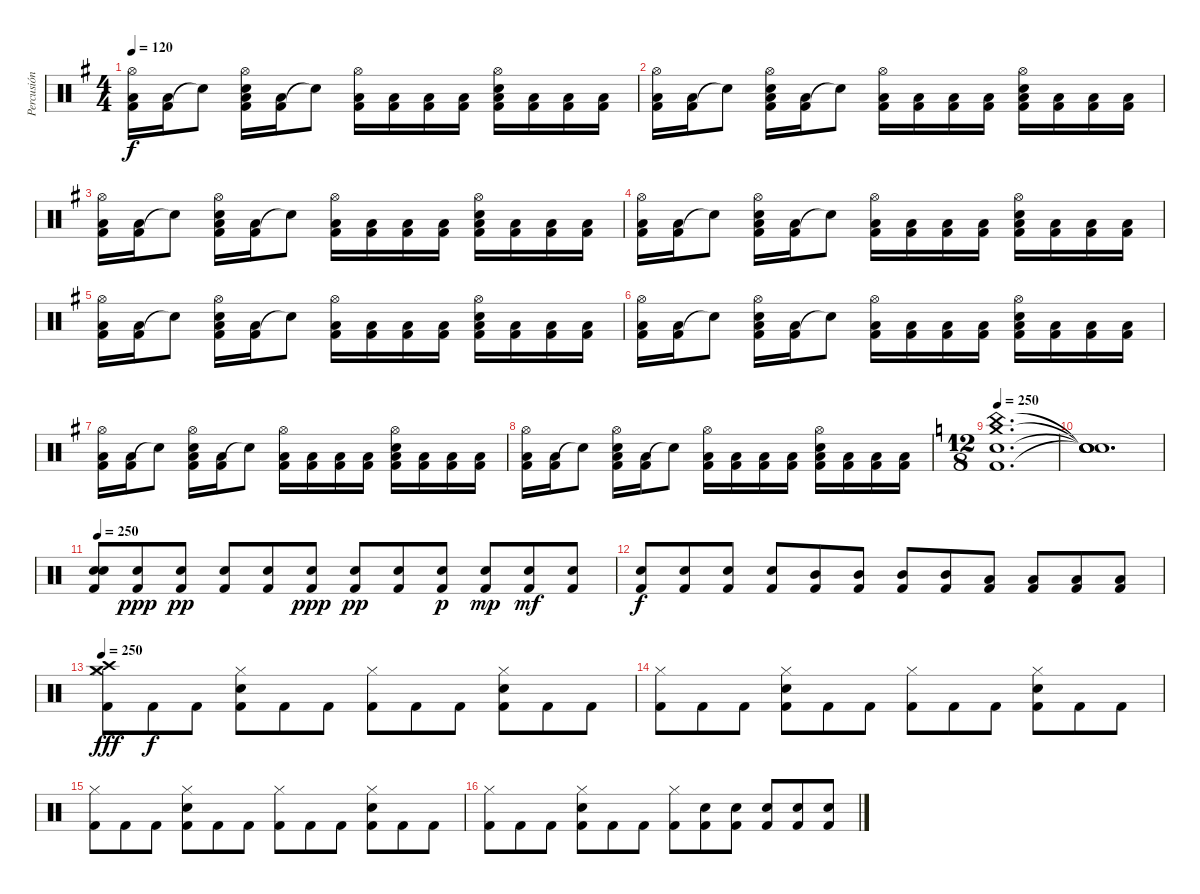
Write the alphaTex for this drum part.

\track ("Percusión" "Percusión") {instrument percussion}
\staff {score}
\articulation defaults
\ts (4 4)
\tempo 120
\clef neutral
\ks g
("Hi-Hat (open)" "Kick (hit) 2" "Low Tom (hit)").16{dy f} ("Kick (hit) 2" "Low Tom (hit)").16 "Snare (hit)"{t}.8 ("Hi-Hat (open)" "Kick (hit) 2" "Low Tom (hit)" "Snare (hit) 2").16 ("Kick (hit) 2" "Low Tom (hit)").16 "Snare (hit)"{t}.8 ("Hi-Hat (open)" "Kick (hit) 2" "Low Tom (hit)").16 ("Kick (hit) 2" "Low Tom (hit)").16 ("Kick (hit) 2" "Low Tom (hit)").16 ("Kick (hit) 2" "Low Tom (hit)").16 ("Hi-Hat (open)" "Kick (hit) 2" "Low Tom (hit)" "Snare (hit) 2").16 ("Kick (hit) 2" "Low Tom (hit)").16 ("Kick (hit) 2" "Low Tom (hit)").16 ("Kick (hit) 2" "Low Tom (hit)").16 |
("Hi-Hat (open)" "Kick (hit) 2" "Low Tom (hit)").16 ("Kick (hit) 2" "Low Tom (hit)").16 "Snare (hit)"{t}.8 ("Hi-Hat (open)" "Kick (hit) 2" "Low Tom (hit)" "Snare (hit) 2").16 ("Kick (hit) 2" "Low Tom (hit)").16 "Snare (hit)"{t}.8 ("Hi-Hat (open)" "Kick (hit) 2" "Low Tom (hit)").16 ("Kick (hit) 2" "Low Tom (hit)").16 ("Kick (hit) 2" "Low Tom (hit)").16 ("Kick (hit) 2" "Low Tom (hit)").16 ("Hi-Hat (open)" "Kick (hit) 2" "Low Tom (hit)" "Snare (hit) 2").16 ("Kick (hit) 2" "Low Tom (hit)").16 ("Kick (hit) 2" "Low Tom (hit)").16 ("Kick (hit) 2" "Low Tom (hit)").16 |
("Hi-Hat (open)" "Kick (hit) 2" "Low Tom (hit)").16 ("Kick (hit) 2" "Low Tom (hit)").16 "Snare (hit)"{t}.8 ("Hi-Hat (open)" "Kick (hit) 2" "Low Tom (hit)" "Snare (hit) 2").16 ("Kick (hit) 2" "Low Tom (hit)").16 "Snare (hit)"{t}.8 ("Hi-Hat (open)" "Kick (hit) 2" "Low Tom (hit)").16 ("Kick (hit) 2" "Low Tom (hit)").16 ("Kick (hit) 2" "Low Tom (hit)").16 ("Kick (hit) 2" "Low Tom (hit)").16 ("Hi-Hat (open)" "Kick (hit) 2" "Low Tom (hit)" "Snare (hit) 2").16 ("Kick (hit) 2" "Low Tom (hit)").16 ("Kick (hit) 2" "Low Tom (hit)").16 ("Kick (hit) 2" "Low Tom (hit)").16 |
("Hi-Hat (open)" "Kick (hit) 2" "Low Tom (hit)").16 ("Kick (hit) 2" "Low Tom (hit)").16 "Snare (hit)"{t}.8 ("Hi-Hat (open)" "Kick (hit) 2" "Low Tom (hit)" "Snare (hit) 2").16 ("Kick (hit) 2" "Low Tom (hit)").16 "Snare (hit)"{t}.8 ("Hi-Hat (open)" "Kick (hit) 2" "Low Tom (hit)").16 ("Kick (hit) 2" "Low Tom (hit)").16 ("Kick (hit) 2" "Low Tom (hit)").16 ("Kick (hit) 2" "Low Tom (hit)").16 ("Hi-Hat (open)" "Kick (hit) 2" "Low Tom (hit)" "Snare (hit) 2").16 ("Kick (hit) 2" "Low Tom (hit)").16 ("Kick (hit) 2" "Low Tom (hit)").16 ("Kick (hit) 2" "Low Tom (hit)").16 |
("Hi-Hat (open)" "Kick (hit) 2" "Low Tom (hit)").16 ("Kick (hit) 2" "Low Tom (hit)").16 "Snare (hit)"{t}.8 ("Hi-Hat (open)" "Kick (hit) 2" "Low Tom (hit)" "Snare (hit) 2").16 ("Kick (hit) 2" "Low Tom (hit)").16 "Snare (hit)"{t}.8 ("Hi-Hat (open)" "Kick (hit) 2" "Low Tom (hit)").16 ("Kick (hit) 2" "Low Tom (hit)").16 ("Kick (hit) 2" "Low Tom (hit)").16 ("Kick (hit) 2" "Low Tom (hit)").16 ("Hi-Hat (open)" "Kick (hit) 2" "Low Tom (hit)" "Snare (hit) 2").16 ("Kick (hit) 2" "Low Tom (hit)").16 ("Kick (hit) 2" "Low Tom (hit)").16 ("Kick (hit) 2" "Low Tom (hit)").16 |
("Hi-Hat (open)" "Kick (hit) 2" "Low Tom (hit)").16 ("Kick (hit) 2" "Low Tom (hit)").16 "Snare (hit)"{t}.8 ("Hi-Hat (open)" "Kick (hit) 2" "Low Tom (hit)" "Snare (hit) 2").16 ("Kick (hit) 2" "Low Tom (hit)").16 "Snare (hit)"{t}.8 ("Hi-Hat (open)" "Kick (hit) 2" "Low Tom (hit)").16 ("Kick (hit) 2" "Low Tom (hit)").16 ("Kick (hit) 2" "Low Tom (hit)").16 ("Kick (hit) 2" "Low Tom (hit)").16 ("Hi-Hat (open)" "Kick (hit) 2" "Low Tom (hit)" "Snare (hit) 2").16 ("Kick (hit) 2" "Low Tom (hit)").16 ("Kick (hit) 2" "Low Tom (hit)").16 ("Kick (hit) 2" "Low Tom (hit)").16 |
("Hi-Hat (open)" "Kick (hit) 2" "Low Tom (hit)").16 ("Kick (hit) 2" "Low Tom (hit)").16 "Snare (hit)"{t}.8 ("Hi-Hat (open)" "Kick (hit) 2" "Low Tom (hit)" "Snare (hit) 2").16 ("Kick (hit) 2" "Low Tom (hit)").16 "Snare (hit)"{t}.8 ("Hi-Hat (open)" "Kick (hit) 2" "Low Tom (hit)").16 ("Kick (hit) 2" "Low Tom (hit)").16 ("Kick (hit) 2" "Low Tom (hit)").16 ("Kick (hit) 2" "Low Tom (hit)").16 ("Hi-Hat (open)" "Kick (hit) 2" "Low Tom (hit)" "Snare (hit) 2").16 ("Kick (hit) 2" "Low Tom (hit)").16 ("Kick (hit) 2" "Low Tom (hit)").16 ("Kick (hit) 2" "Low Tom (hit)").16 |
("Hi-Hat (open)" "Kick (hit) 2" "Low Tom (hit)").16 ("Kick (hit) 2" "Low Tom (hit)").16 "Snare (hit)"{t}.8 ("Hi-Hat (open)" "Kick (hit) 2" "Low Tom (hit)" "Snare (hit) 2").16 ("Kick (hit) 2" "Low Tom (hit)").16 "Snare (hit)"{t}.8 ("Hi-Hat (open)" "Kick (hit) 2" "Low Tom (hit)").16 ("Kick (hit) 2" "Low Tom (hit)").16 ("Kick (hit) 2" "Low Tom (hit)").16 ("Kick (hit) 2" "Low Tom (hit)").16 ("Hi-Hat (open)" "Kick (hit) 2" "Low Tom (hit)" "Snare (hit) 2").16 ("Kick (hit) 2" "Low Tom (hit)").16 ("Kick (hit) 2" "Low Tom (hit)").16 ("Kick (hit) 2" "Low Tom (hit)").16 |
\ts (12 8)
\tempo 250
\ks c
("Snare (hit) 2" "Crash medium (hit)" "Kick (hit) 2" "China (hit)").1{d} |
("Snare (hit)"{t} "Snare (hit)"{t} "Snare (hit)"{t} "Snare (hit)"{t}).1{d} |
\tempo 250
("Kick (hit) 2" "Snare (hit) 2" "Snare (hit) 2").8 ("Kick (hit) 2" "Snare (hit) 2").8{dy ppp} ("Kick (hit) 2" "Snare (hit) 2").8{dy pp} ("Kick (hit) 2" "Snare (hit) 2").8 ("Kick (hit) 2" "Snare (hit) 2").8 ("Kick (hit) 2" "Snare (hit) 2").8{dy ppp} ("Kick (hit) 2" "Snare (hit) 2").8{dy pp} ("Kick (hit) 2" "Snare (hit) 2").8 ("Kick (hit) 2" "Snare (hit) 2").8{dy p} ("Kick (hit) 2" "Snare (hit) 2").8{dy mp} ("Kick (hit) 2" "Snare (hit) 2").8{dy mf} ("Kick (hit) 2" "Snare (hit) 2").8 |
("Kick (hit) 2" "Snare (hit) 2").8{dy f} ("Kick (hit) 2" "Snare (hit) 2").8 ("Kick (hit) 2" "Snare (hit) 2").8 ("Kick (hit) 2" "Snare (hit) 2").8 ("Kick (hit) 2" "Mid Tom (hit)").8 ("Kick (hit) 2" "Mid Tom (hit)").8 ("Kick (hit) 2" "Mid Tom (hit)").8 ("Kick (hit) 2" "Mid Tom (hit)").8 ("Kick (hit) 2" "Low Tom (hit)").8 ("Kick (hit) 2" "Low Tom (hit)").8 ("Kick (hit) 2" "Low Tom (hit)").8 ("Kick (hit) 2" "Low Tom (hit)").8 |
\tempo 250
("Kick (hit) 2" "Hi-Hat (closed)" "Crash medium (hit)" "Crash high (hit)").8{dy fff} "Kick (hit) 2".8{dy f} "Kick (hit) 2".8 ("Kick (hit) 2" "Hi-Hat (closed)" "Snare (hit) 2").8 "Kick (hit) 2".8 "Kick (hit) 2".8 ("Kick (hit) 2" "Hi-Hat (closed)").8 "Kick (hit) 2".8 "Kick (hit) 2".8 ("Kick (hit) 2" "Hi-Hat (closed)" "Snare (hit) 2").8 "Kick (hit) 2".8 "Kick (hit) 2".8 |
("Kick (hit) 2" "Hi-Hat (closed)").8 "Kick (hit) 2".8 "Kick (hit) 2".8 ("Kick (hit) 2" "Hi-Hat (closed)" "Snare (hit) 2").8 "Kick (hit) 2".8 "Kick (hit) 2".8 ("Kick (hit) 2" "Hi-Hat (closed)").8 "Kick (hit) 2".8 "Kick (hit) 2".8 ("Kick (hit) 2" "Hi-Hat (closed)" "Snare (hit) 2").8 "Kick (hit) 2".8 "Kick (hit) 2".8 |
("Kick (hit) 2" "Hi-Hat (closed)").8 "Kick (hit) 2".8 "Kick (hit) 2".8 ("Kick (hit) 2" "Hi-Hat (closed)" "Snare (hit) 2").8 "Kick (hit) 2".8 "Kick (hit) 2".8 ("Kick (hit) 2" "Hi-Hat (closed)").8 "Kick (hit) 2".8 "Kick (hit) 2".8 ("Kick (hit) 2" "Hi-Hat (closed)" "Snare (hit) 2").8 "Kick (hit) 2".8 "Kick (hit) 2".8 |
("Kick (hit) 2" "Hi-Hat (closed)").8 "Kick (hit) 2".8 "Kick (hit) 2".8 ("Kick (hit) 2" "Hi-Hat (closed)" "Snare (hit) 2").8 "Kick (hit) 2".8 "Kick (hit) 2".8 ("Kick (hit) 2" "Hi-Hat (closed)").8 ("Kick (hit) 2" "Snare (hit) 2").8 ("Kick (hit) 2" "Snare (hit) 2").8 ("Kick (hit) 2" "Snare (hit) 2").8 ("Kick (hit) 2" "Snare (hit) 2").8 ("Kick (hit) 2" "Snare (hit) 2").8
